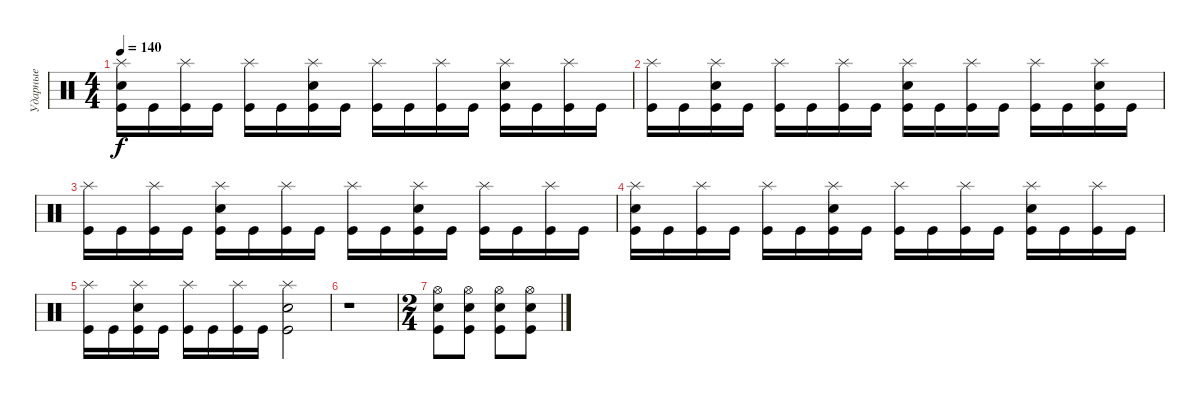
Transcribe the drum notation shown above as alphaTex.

\track ("Ударные" "Ударные") {instrument percussion}
\staff {score}
\articulation defaults
\ts (4 4)
\tempo 140
\clef neutral
\ks c
("Kick (hit)" "Snare (hit) 2" "Splash (hit)").16{dy f} "Kick (hit)".16 ("Kick (hit)" "Splash (hit)").16 "Kick (hit)".16 ("Kick (hit)" "Splash (hit)").16 "Kick (hit)".16 ("Kick (hit)" "Snare (hit) 2" "Splash (hit)").16 "Kick (hit)".16 ("Kick (hit)" "Splash (hit)").16 "Kick (hit)".16 ("Kick (hit)" "Splash (hit)").16 "Kick (hit)".16 ("Kick (hit)" "Snare (hit) 2" "Splash (hit)").16 "Kick (hit)".16 ("Kick (hit)" "Splash (hit)").16 "Kick (hit)".16 |
("Kick (hit)" "Splash (hit)").16 "Kick (hit)".16 ("Kick (hit)" "Snare (hit) 2" "Splash (hit)").16 "Kick (hit)".16 ("Kick (hit)" "Splash (hit)").16 "Kick (hit)".16 ("Kick (hit)" "Splash (hit)").16 "Kick (hit)".16 ("Kick (hit)" "Snare (hit) 2" "Splash (hit)").16 "Kick (hit)".16 ("Kick (hit)" "Splash (hit)").16 "Kick (hit)".16 ("Kick (hit)" "Splash (hit)").16 "Kick (hit)".16 ("Kick (hit)" "Snare (hit) 2" "Splash (hit)").16 "Kick (hit)".16 |
("Kick (hit)" "Splash (hit)").16 "Kick (hit)".16 ("Kick (hit)" "Splash (hit)").16 "Kick (hit)".16 ("Kick (hit)" "Snare (hit) 2" "Splash (hit)").16 "Kick (hit)".16 ("Kick (hit)" "Splash (hit)").16 "Kick (hit)".16 ("Kick (hit)" "Splash (hit)").16 "Kick (hit)".16 ("Kick (hit)" "Snare (hit) 2" "Splash (hit)").16 "Kick (hit)".16 ("Kick (hit)" "Splash (hit)").16 "Kick (hit)".16 ("Kick (hit)" "Splash (hit)").16 "Kick (hit)".16 |
("Kick (hit)" "Snare (hit) 2" "Splash (hit)").16 "Kick (hit)".16 ("Kick (hit)" "Splash (hit)").16 "Kick (hit)".16 ("Kick (hit)" "Splash (hit)").16 "Kick (hit)".16 ("Kick (hit)" "Snare (hit) 2" "Splash (hit)").16 "Kick (hit)".16 ("Kick (hit)" "Splash (hit)").16 "Kick (hit)".16 ("Kick (hit)" "Splash (hit)").16 "Kick (hit)".16 ("Kick (hit)" "Snare (hit) 2" "Splash (hit)").16 "Kick (hit)".16 ("Kick (hit)" "Splash (hit)").16 "Kick (hit)".16 |
("Kick (hit)" "Splash (hit)").16 "Kick (hit)".16 ("Kick (hit)" "Snare (hit) 2" "Splash (hit)").16 "Kick (hit)".16 ("Kick (hit)" "Splash (hit)").16 "Kick (hit)".16 ("Kick (hit)" "Splash (hit)").16 "Kick (hit)".16 ("Kick (hit)" "Snare (hit) 2" "Splash (hit)").2 |
r.1 |
\ts (2 4)
("Kick (hit)" "Snare (hit) 2" "Hi-Hat (open)").8 ("Kick (hit)" "Snare (hit) 2" "Hi-Hat (open)").8 ("Kick (hit)" "Snare (hit) 2" "Hi-Hat (open)").8 ("Kick (hit)" "Snare (hit) 2" "Hi-Hat (open)").8
